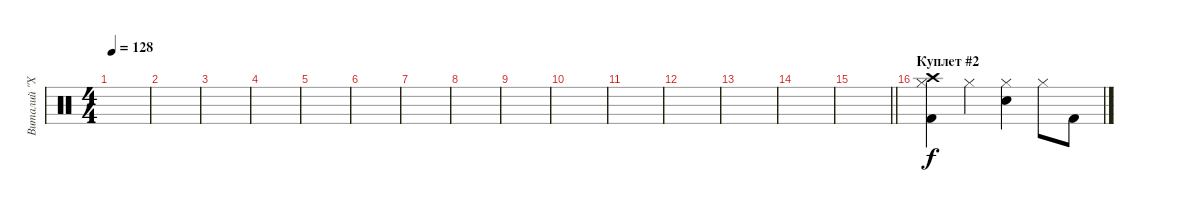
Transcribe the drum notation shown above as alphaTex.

\track ("Виталий \"Хамер\" Лядов" "Виталий \"Х") {instrument percussion}
\staff {score}
\articulation defaults
\ts (4 4)
\tempo 128
\clef neutral
\ks c
|
|
|
|
|
|
|
|
|
|
|
|
|
|
\barLineRight lightlight
|
\section ("" "Куплет #2")
("Kick (hit) 2" "Hi-Hat (closed)" "Crash high (hit)").4 "Hi-Hat (closed)".4 ("Electric Snare (hit)" "Hi-Hat (closed)").4 "Hi-Hat (closed)".8 "Kick (hit) 2".8
